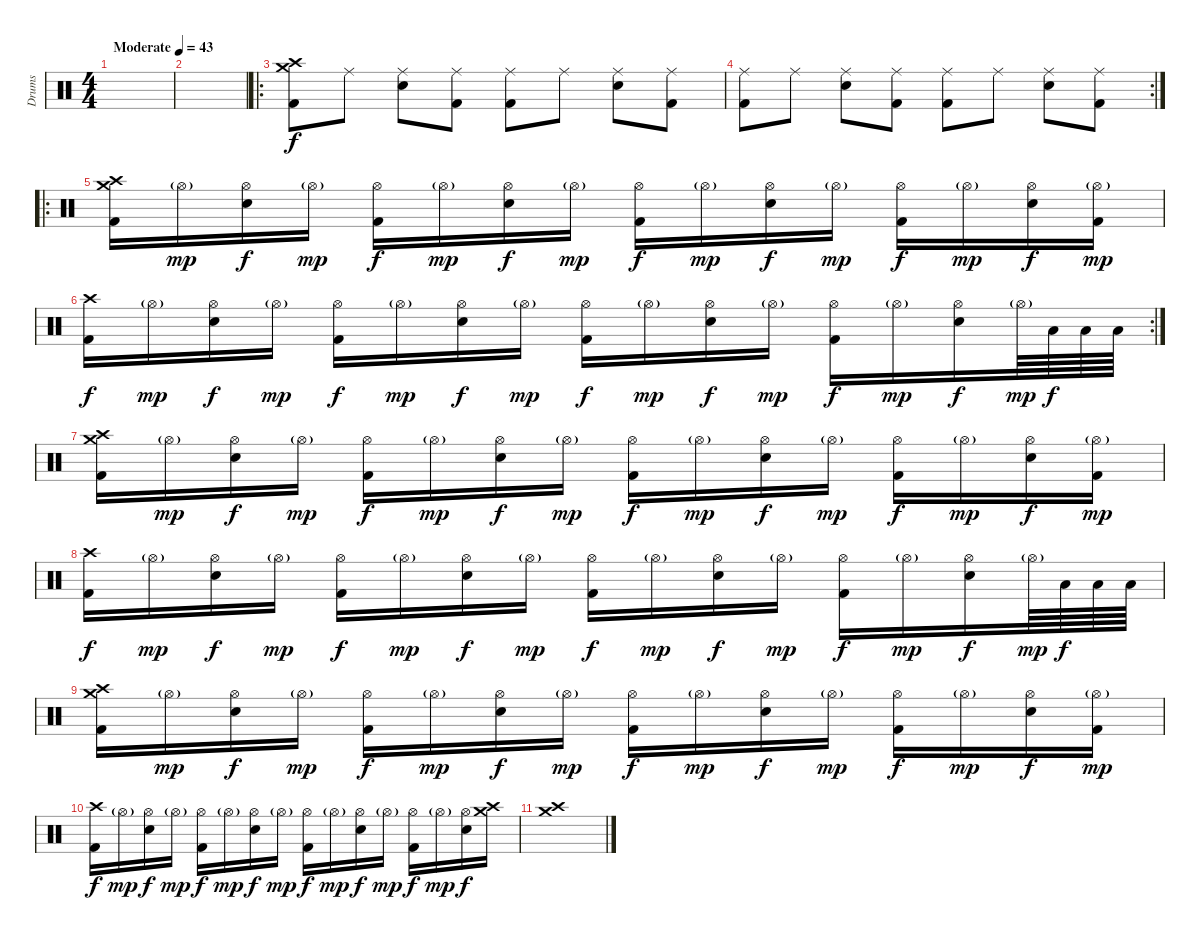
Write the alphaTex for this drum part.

\track ("Drums" "Drums") {instrument percussion}
\staff {score}
\articulation defaults
\ts (4 4)
\tempo (43 "Moderate")
\clef neutral
\ks c
|
|
\ro
("Crash medium (hit)" "Crash high (hit)" "Kick (hit) 2").8 "Ride (middle)".8 ("Ride (middle)" "Electric Snare (hit)").8 ("Ride (middle)" "Kick (hit) 2").8 ("Ride (middle)" "Kick (hit) 2").8 "Ride (middle)".8 ("Ride (middle)" "Electric Snare (hit)").8 ("Ride (middle)" "Kick (hit) 2").8 |
\rc 2
("Ride (middle)" "Kick (hit) 2").8 "Ride (middle)".8 ("Ride (middle)" "Electric Snare (hit)").8 ("Ride (middle)" "Kick (hit) 2").8 ("Ride (middle)" "Kick (hit) 2").8 "Ride (middle)".8 ("Ride (middle)" "Electric Snare (hit)").8 ("Ride (middle)" "Kick (hit) 2").8 |
\ro
("Crash medium (hit)" "Crash high (hit)" "Kick (hit) 2").16 "Hi-Hat (open)"{g}.16{dy mp} ("Hi-Hat (open)" "Electric Snare (hit)").16{dy f} "Hi-Hat (open)"{g}.16{dy mp} ("Hi-Hat (open)" "Kick (hit) 2").16{dy f} "Hi-Hat (open)"{g}.16{dy mp} ("Hi-Hat (open)" "Electric Snare (hit)").16{dy f} "Hi-Hat (open)"{g}.16{dy mp} ("Hi-Hat (open)" "Kick (hit) 2").16{dy f} "Hi-Hat (open)"{g}.16{dy mp} ("Hi-Hat (open)" "Electric Snare (hit)").16{dy f} "Hi-Hat (open)"{g}.16{dy mp} ("Hi-Hat (open)" "Kick (hit) 2").16{dy f} "Hi-Hat (open)"{g}.16{dy mp} ("Hi-Hat (open)" "Electric Snare (hit)").16{dy f} ("Hi-Hat (open)"{g} "Kick (hit) 2").16{dy mp} |
\rc 2
("Crash high (hit)" "Kick (hit) 2").16{dy f} "Hi-Hat (open)"{g}.16{dy mp} ("Hi-Hat (open)" "Electric Snare (hit)").16{dy f} "Hi-Hat (open)"{g}.16{dy mp} ("Hi-Hat (open)" "Kick (hit) 2").16{dy f} "Hi-Hat (open)"{g}.16{dy mp} ("Hi-Hat (open)" "Electric Snare (hit)").16{dy f} "Hi-Hat (open)"{g}.16{dy mp} ("Hi-Hat (open)" "Kick (hit) 2").16{dy f} "Hi-Hat (open)"{g}.16{dy mp} ("Hi-Hat (open)" "Electric Snare (hit)").16{dy f} "Hi-Hat (open)"{g}.16{dy mp} ("Hi-Hat (open)" "Kick (hit) 2").16{dy f} "Hi-Hat (open)"{g}.16{dy mp} ("Hi-Hat (open)" "Electric Snare (hit)").16{dy f} "Hi-Hat (open)"{g}.64{dy mp} "Low Tom (hit)".64{dy f} "Low Tom (hit)".64 "Low Tom (hit)".64 |
("Crash medium (hit)" "Crash high (hit)" "Kick (hit) 2").16 "Hi-Hat (open)"{g}.16{dy mp} ("Hi-Hat (open)" "Electric Snare (hit)").16{dy f} "Hi-Hat (open)"{g}.16{dy mp} ("Hi-Hat (open)" "Kick (hit) 2").16{dy f} "Hi-Hat (open)"{g}.16{dy mp} ("Hi-Hat (open)" "Electric Snare (hit)").16{dy f} "Hi-Hat (open)"{g}.16{dy mp} ("Hi-Hat (open)" "Kick (hit) 2").16{dy f} "Hi-Hat (open)"{g}.16{dy mp} ("Hi-Hat (open)" "Electric Snare (hit)").16{dy f} "Hi-Hat (open)"{g}.16{dy mp} ("Hi-Hat (open)" "Kick (hit) 2").16{dy f} "Hi-Hat (open)"{g}.16{dy mp} ("Hi-Hat (open)" "Electric Snare (hit)").16{dy f} ("Hi-Hat (open)"{g} "Kick (hit) 2").16{dy mp} |
("Crash high (hit)" "Kick (hit) 2").16{dy f} "Hi-Hat (open)"{g}.16{dy mp} ("Hi-Hat (open)" "Electric Snare (hit)").16{dy f} "Hi-Hat (open)"{g}.16{dy mp} ("Hi-Hat (open)" "Kick (hit) 2").16{dy f} "Hi-Hat (open)"{g}.16{dy mp} ("Hi-Hat (open)" "Electric Snare (hit)").16{dy f} "Hi-Hat (open)"{g}.16{dy mp} ("Hi-Hat (open)" "Kick (hit) 2").16{dy f} "Hi-Hat (open)"{g}.16{dy mp} ("Hi-Hat (open)" "Electric Snare (hit)").16{dy f} "Hi-Hat (open)"{g}.16{dy mp} ("Hi-Hat (open)" "Kick (hit) 2").16{dy f} "Hi-Hat (open)"{g}.16{dy mp} ("Hi-Hat (open)" "Electric Snare (hit)").16{dy f} "Hi-Hat (open)"{g}.64{dy mp} "Low Tom (hit)".64{dy f} "Low Tom (hit)".64 "Low Tom (hit)".64 |
("Crash medium (hit)" "Crash high (hit)" "Kick (hit) 2").16 "Hi-Hat (open)"{g}.16{dy mp} ("Hi-Hat (open)" "Electric Snare (hit)").16{dy f} "Hi-Hat (open)"{g}.16{dy mp} ("Hi-Hat (open)" "Kick (hit) 2").16{dy f} "Hi-Hat (open)"{g}.16{dy mp} ("Hi-Hat (open)" "Electric Snare (hit)").16{dy f} "Hi-Hat (open)"{g}.16{dy mp} ("Hi-Hat (open)" "Kick (hit) 2").16{dy f} "Hi-Hat (open)"{g}.16{dy mp} ("Hi-Hat (open)" "Electric Snare (hit)").16{dy f} "Hi-Hat (open)"{g}.16{dy mp} ("Hi-Hat (open)" "Kick (hit) 2").16{dy f} "Hi-Hat (open)"{g}.16{dy mp} ("Hi-Hat (open)" "Electric Snare (hit)").16{dy f} ("Hi-Hat (open)"{g} "Kick (hit) 2").16{dy mp} |
("Crash high (hit)" "Kick (hit) 2").16{dy f} "Hi-Hat (open)"{g}.16{dy mp} ("Hi-Hat (open)" "Electric Snare (hit)").16{dy f} "Hi-Hat (open)"{g}.16{dy mp} ("Hi-Hat (open)" "Kick (hit) 2").16{dy f} "Hi-Hat (open)"{g}.16{dy mp} ("Hi-Hat (open)" "Electric Snare (hit)").16{dy f} "Hi-Hat (open)"{g}.16{dy mp} ("Hi-Hat (open)" "Kick (hit) 2").16{dy f} "Hi-Hat (open)"{g}.16{dy mp} ("Hi-Hat (open)" "Electric Snare (hit)").16{dy f} "Hi-Hat (open)"{g}.16{dy mp} ("Hi-Hat (open)" "Kick (hit) 2").16{dy f} "Hi-Hat (open)"{g}.16{dy mp} ("Hi-Hat (open)" "Electric Snare (hit)").16{dy f} ("Crash medium (hit)" "Crash high (hit)").16 |
("Crash medium (hit)" "Crash high (hit)").1
